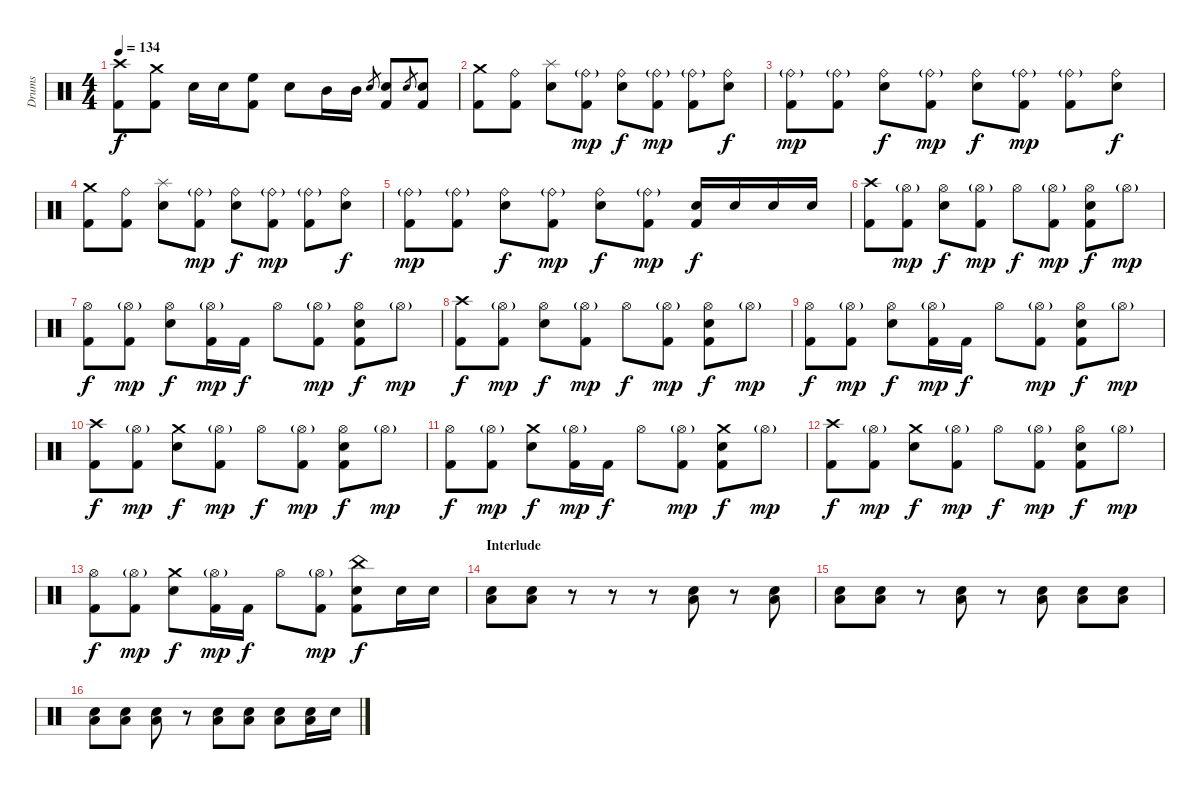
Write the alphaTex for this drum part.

\track ("Drums" "Drums") {instrument percussion}
\staff {score}
\articulation defaults
\ts (4 4)
\tempo 134
\clef neutral
\ks c
("Crash high (hit)" "Kick (hit) 2").8{dy f} ("Crash medium (hit)" "Kick (hit) 2").8 "Electric Snare (hit)".16 "Electric Snare (hit)".16 ("High Floor Tom (hit)" "Kick (hit) 2").8 "Electric Snare (hit)".8 "Mid Tom (hit)".16 "Mid Tom (hit)".16 "Electric Snare (hit)".8{gr} ("Electric Snare (hit)" "Kick (hit) 2").8 "Electric Snare (hit)".8{gr} ("Electric Snare (hit)" "Kick (hit) 2").8 |
("Crash medium (hit)" "Kick (hit) 2").8 ("Ride (bell)" "Kick (hit) 2").8 ("Splash (hit)" "Electric Snare (hit)").8 ("Ride (bell)"{g} "Kick (hit) 2").8{dy mp} ("Ride (bell)" "Electric Snare (hit)").8{dy f} ("Ride (bell)"{g} "Kick (hit) 2").8{dy mp} ("Ride (bell)"{g} "Kick (hit) 2").8 ("Ride (bell)" "Electric Snare (hit)").8{dy f} |
("Ride (bell)"{g} "Kick (hit) 2").8{dy mp} ("Ride (bell)"{g} "Kick (hit) 2").8 ("Ride (bell)" "Electric Snare (hit)").8{dy f} ("Ride (bell)"{g} "Kick (hit) 2").8{dy mp} ("Ride (bell)" "Electric Snare (hit)").8{dy f} ("Ride (bell)"{g} "Kick (hit) 2").8{dy mp} ("Ride (bell)"{g} "Kick (hit) 2").8 ("Ride (bell)" "Electric Snare (hit)").8{dy f} |
("Crash medium (hit)" "Kick (hit) 2").8 ("Ride (bell)" "Kick (hit) 2").8 ("Splash (hit)" "Electric Snare (hit)").8 ("Ride (bell)"{g} "Kick (hit) 2").8{dy mp} ("Ride (bell)" "Electric Snare (hit)").8{dy f} ("Ride (bell)"{g} "Kick (hit) 2").8{dy mp} ("Ride (bell)"{g} "Kick (hit) 2").8 ("Ride (bell)" "Electric Snare (hit)").8{dy f} |
("Ride (bell)"{g} "Kick (hit) 2").8{dy mp} ("Ride (bell)"{g} "Kick (hit) 2").8 ("Ride (bell)" "Electric Snare (hit)").8{dy f} ("Ride (bell)"{g} "Kick (hit) 2").8{dy mp} ("Ride (bell)" "Electric Snare (hit)").8{dy f} ("Ride (bell)"{g} "Kick (hit) 2").8{dy mp} ("Electric Snare (hit)" "Kick (hit) 2").16{dy f} "Electric Snare (hit)".16 "Electric Snare (hit)".16 "Electric Snare (hit)".16 |
("Crash high (hit)" "Kick (hit) 2").8 ("Hi-Hat (open)"{g} "Kick (hit) 2").8{dy mp} ("Hi-Hat (open)" "Electric Snare (hit)").8{dy f} ("Hi-Hat (open)"{g} "Kick (hit) 2").8{dy mp} "Hi-Hat (open)".8{dy f} ("Hi-Hat (open)"{g} "Kick (hit) 2").8{dy mp} ("Hi-Hat (open)" "Electric Snare (hit)" "Kick (hit) 2").8{dy f} "Hi-Hat (open)"{g}.8{dy mp} |
("Hi-Hat (open)" "Kick (hit) 2").8{dy f} ("Hi-Hat (open)"{g} "Kick (hit) 2").8{dy mp} ("Hi-Hat (open)" "Electric Snare (hit)").8{dy f} ("Hi-Hat (open)"{g} "Kick (hit) 2").16{dy mp} "Kick (hit) 2".16{dy f} "Hi-Hat (open)".8 ("Hi-Hat (open)"{g} "Kick (hit) 2").8{dy mp} ("Hi-Hat (open)" "Electric Snare (hit)" "Kick (hit) 2").8{dy f} "Hi-Hat (open)"{g}.8{dy mp} |
("Crash high (hit)" "Kick (hit) 2").8{dy f} ("Hi-Hat (open)"{g} "Kick (hit) 2").8{dy mp} ("Hi-Hat (open)" "Electric Snare (hit)").8{dy f} ("Hi-Hat (open)"{g} "Kick (hit) 2").8{dy mp} "Hi-Hat (open)".8{dy f} ("Hi-Hat (open)"{g} "Kick (hit) 2").8{dy mp} ("Hi-Hat (open)" "Electric Snare (hit)" "Kick (hit) 2").8{dy f} "Hi-Hat (open)"{g}.8{dy mp} |
("Hi-Hat (open)" "Kick (hit) 2").8{dy f} ("Hi-Hat (open)"{g} "Kick (hit) 2").8{dy mp} ("Hi-Hat (open)" "Electric Snare (hit)").8{dy f} ("Hi-Hat (open)"{g} "Kick (hit) 2").16{dy mp} "Kick (hit) 2".16{dy f} "Hi-Hat (open)".8 ("Hi-Hat (open)"{g} "Kick (hit) 2").8{dy mp} ("Hi-Hat (open)" "Electric Snare (hit)" "Kick (hit) 2").8{dy f} "Hi-Hat (open)"{g}.8{dy mp} |
("Crash high (hit)" "Kick (hit) 2").8{dy f} ("Hi-Hat (open)"{g} "Kick (hit) 2").8{dy mp} ("Crash medium (hit)" "Electric Snare (hit)").8{dy f} ("Hi-Hat (open)"{g} "Kick (hit) 2").8{dy mp} "Hi-Hat (open)".8{dy f} ("Hi-Hat (open)"{g} "Kick (hit) 2").8{dy mp} ("Hi-Hat (open)" "Electric Snare (hit)" "Kick (hit) 2").8{dy f} "Hi-Hat (open)"{g}.8{dy mp} |
("Hi-Hat (open)" "Kick (hit) 2").8{dy f} ("Hi-Hat (open)"{g} "Kick (hit) 2").8{dy mp} ("Crash medium (hit)" "Electric Snare (hit)").8{dy f} ("Hi-Hat (open)"{g} "Kick (hit) 2").16{dy mp} "Kick (hit) 2".16{dy f} "Hi-Hat (open)".8 ("Hi-Hat (open)"{g} "Kick (hit) 2").8{dy mp} ("Crash medium (hit)" "Electric Snare (hit)" "Kick (hit) 2").8{dy f} "Hi-Hat (open)"{g}.8{dy mp} |
("Crash high (hit)" "Kick (hit) 2").8{dy f} ("Hi-Hat (open)"{g} "Kick (hit) 2").8{dy mp} ("Crash medium (hit)" "Electric Snare (hit)").8{dy f} ("Hi-Hat (open)"{g} "Kick (hit) 2").8{dy mp} "Hi-Hat (open)".8{dy f} ("Hi-Hat (open)"{g} "Kick (hit) 2").8{dy mp} ("Hi-Hat (open)" "Electric Snare (hit)" "Kick (hit) 2").8{dy f} "Hi-Hat (open)"{g}.8{dy mp} |
("Hi-Hat (open)" "Kick (hit) 2").8{dy f} ("Hi-Hat (open)"{g} "Kick (hit) 2").8{dy mp} ("Crash medium (hit)" "Electric Snare (hit)").8{dy f} ("Hi-Hat (open)"{g} "Kick (hit) 2").16{dy mp} "Kick (hit) 2".16{dy f} "Hi-Hat (open)".8 ("Hi-Hat (open)"{g} "Kick (hit) 2").8{dy mp} ("China (hit)" "Electric Snare (hit)" "Kick (hit) 2").8{dy f} "Electric Snare (hit)".16 "Electric Snare (hit)".16 |
\section ("" "Interlude")
("Electric Snare (hit)" "Low Floor Tom (hit)").8 ("Electric Snare (hit)" "Low Floor Tom (hit)").8 r.8 r.8 r.8 ("Electric Snare (hit)" "Low Floor Tom (hit)").8 r.8 ("Electric Snare (hit)" "Low Floor Tom (hit)").8 |
("Electric Snare (hit)" "Low Floor Tom (hit)").8 ("Electric Snare (hit)" "Low Floor Tom (hit)").8 r.8 ("Electric Snare (hit)" "Low Floor Tom (hit)").8 r.8 ("Electric Snare (hit)" "Low Floor Tom (hit)").8 ("Electric Snare (hit)" "Low Floor Tom (hit)").8 ("Electric Snare (hit)" "Low Floor Tom (hit)").8 |
("Electric Snare (hit)" "Low Floor Tom (hit)").8 ("Electric Snare (hit)" "Low Floor Tom (hit)").8 ("Electric Snare (hit)" "Low Floor Tom (hit)").8 r.8 ("Electric Snare (hit)" "Low Floor Tom (hit)").8 ("Electric Snare (hit)" "Low Floor Tom (hit)").8 ("Electric Snare (hit)" "Low Floor Tom (hit)").8 ("Electric Snare (hit)" "Low Floor Tom (hit)").16 "Electric Snare (hit)".16
